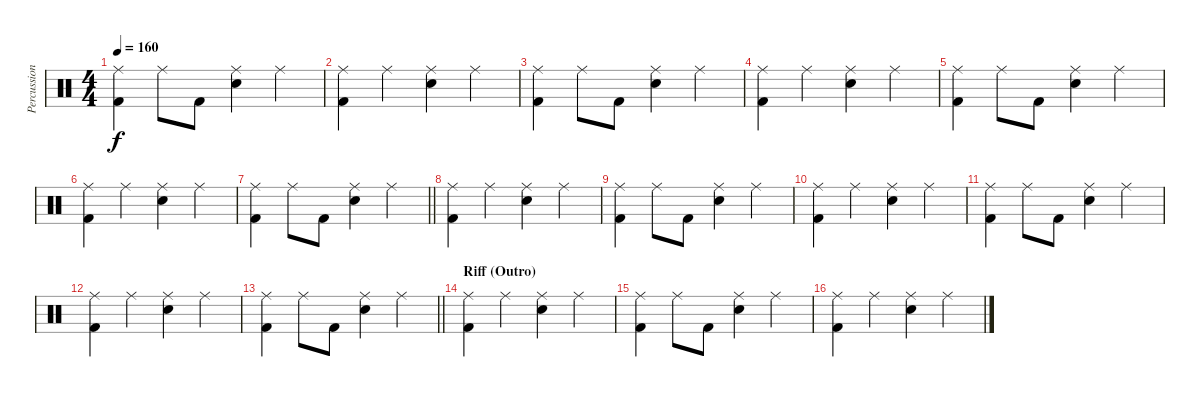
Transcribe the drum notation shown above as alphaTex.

\track ("Percussion" "Percussion") {solo instrument percussion}
\staff {score}
\articulation defaults
\ts (4 4)
\tempo 160
\clef neutral
\ks c
("Ride (middle)" "Kick (hit) 2").4{dy f} "Ride (middle)".8 "Kick (hit) 2".8 ("Ride (middle)" "Snare (hit) 2").4 "Ride (middle)".4 |
("Ride (middle)" "Kick (hit) 2").4 "Ride (middle)".4 ("Ride (middle)" "Snare (hit) 2").4 "Ride (middle)".4 |
("Ride (middle)" "Kick (hit) 2").4 "Ride (middle)".8 "Kick (hit) 2".8 ("Ride (middle)" "Snare (hit) 2").4 "Ride (middle)".4 |
("Ride (middle)" "Kick (hit) 2").4 "Ride (middle)".4 ("Ride (middle)" "Snare (hit) 2").4 "Ride (middle)".4 |
("Ride (middle)" "Kick (hit) 2").4 "Ride (middle)".8 "Kick (hit) 2".8 ("Ride (middle)" "Snare (hit) 2").4 "Ride (middle)".4 |
("Ride (middle)" "Kick (hit) 2").4 "Ride (middle)".4 ("Ride (middle)" "Snare (hit) 2").4 "Ride (middle)".4 |
\barLineRight lightlight
("Ride (middle)" "Kick (hit) 2").4 "Ride (middle)".8 "Kick (hit) 2".8 ("Ride (middle)" "Snare (hit) 2").4 "Ride (middle)".4 |
("Ride (middle)" "Kick (hit) 2").4 "Ride (middle)".4 ("Ride (middle)" "Snare (hit) 2").4 "Ride (middle)".4 |
("Ride (middle)" "Kick (hit) 2").4 "Ride (middle)".8 "Kick (hit) 2".8 ("Ride (middle)" "Snare (hit) 2").4 "Ride (middle)".4 |
("Ride (middle)" "Kick (hit) 2").4 "Ride (middle)".4 ("Ride (middle)" "Snare (hit) 2").4 "Ride (middle)".4 |
("Ride (middle)" "Kick (hit) 2").4 "Ride (middle)".8 "Kick (hit) 2".8 ("Ride (middle)" "Snare (hit) 2").4 "Ride (middle)".4 |
("Ride (middle)" "Kick (hit) 2").4 "Ride (middle)".4 ("Ride (middle)" "Snare (hit) 2").4 "Ride (middle)".4 |
\barLineRight lightlight
("Ride (middle)" "Kick (hit) 2").4 "Ride (middle)".8 "Kick (hit) 2".8 ("Ride (middle)" "Snare (hit) 2").4 "Ride (middle)".4 |
\section ("" "Riff (Outro)")
("Ride (middle)" "Kick (hit) 2").4 "Ride (middle)".4 ("Ride (middle)" "Snare (hit) 2").4 "Ride (middle)".4 |
("Ride (middle)" "Kick (hit) 2").4 "Ride (middle)".8 "Kick (hit) 2".8 ("Ride (middle)" "Snare (hit) 2").4 "Ride (middle)".4 |
("Ride (middle)" "Kick (hit) 2").4 "Ride (middle)".4 ("Ride (middle)" "Snare (hit) 2").4 "Ride (middle)".4
